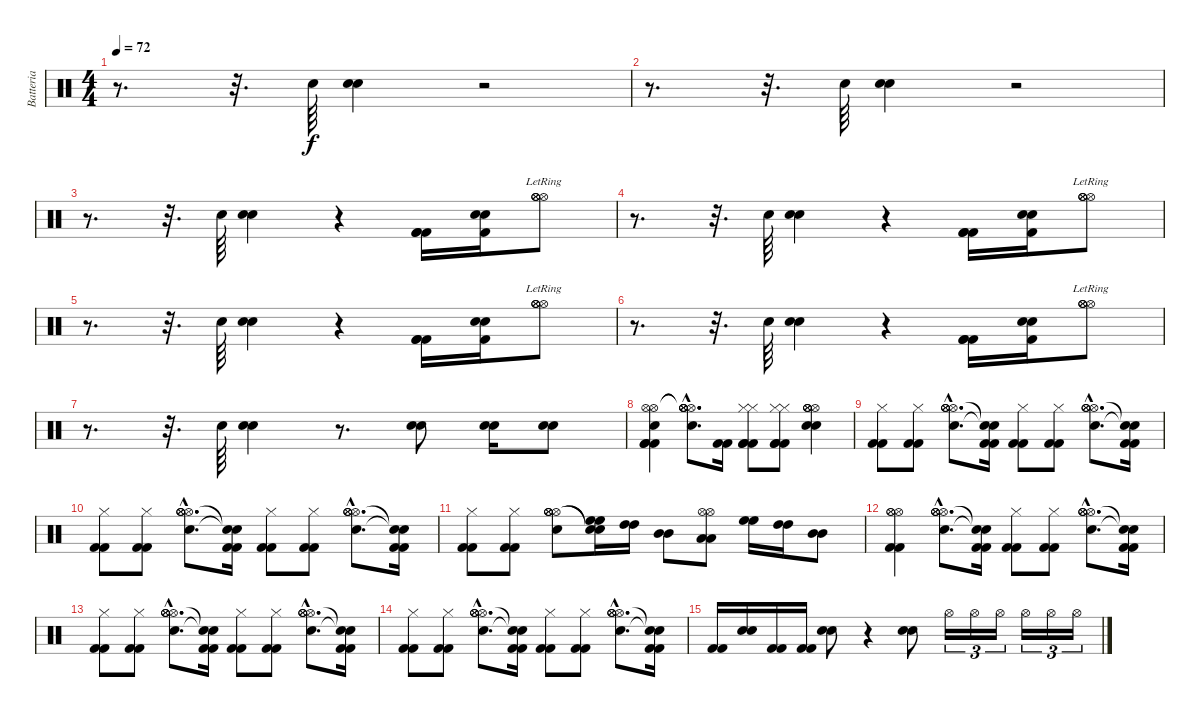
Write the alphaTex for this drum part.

\track ("Batteria" "Batteria") {instrument percussion}
\staff {score}
\articulation defaults
\ts (4 4)
\tempo 72
\clef neutral
\ks c
r.8{d dy f} r.32{d} "Snare (hit) 2".64 ("Snare (hit) 2" "Snare (hit) 2").4 r.2 |
r.8{d} r.32{d} "Snare (hit) 2".64 ("Snare (hit) 2" "Snare (hit) 2").4 r.2 |
r.8{d} r.32{d} "Snare (hit) 2".64 ("Snare (hit) 2" "Snare (hit) 2").4 r.4 ("Kick (hit) 2" "Kick (hit) 2" "Kick (hit) 2").16 ("Kick (hit) 2" "Snare (hit) 2" "Snare (hit) 2").16 ("Hi-Hat (open)" "Hi-Hat (open)" "Hi-Hat (open)"{lr} "Hi-Hat (open)").8{volume 16} |
r.8{d} r.32{d} "Snare (hit) 2".64{volume 11} ("Snare (hit) 2" "Snare (hit) 2").4 r.4 ("Kick (hit) 2" "Kick (hit) 2" "Kick (hit) 2").16 ("Kick (hit) 2" "Snare (hit) 2" "Snare (hit) 2").16 ("Hi-Hat (open)" "Hi-Hat (open)" "Hi-Hat (open)"{lr} "Hi-Hat (open)").8{volume 16} |
r.8{d} r.32{d} "Snare (hit) 2".64{volume 11} ("Snare (hit) 2" "Snare (hit) 2").4 r.4 ("Kick (hit) 2" "Kick (hit) 2" "Kick (hit) 2").16 ("Kick (hit) 2" "Snare (hit) 2" "Snare (hit) 2").16 ("Hi-Hat (open)" "Hi-Hat (open)" "Hi-Hat (open)"{lr} "Hi-Hat (open)").8{volume 16} |
r.8{d} r.32{d} "Snare (hit) 2".64{volume 11} ("Snare (hit) 2" "Snare (hit) 2").4 r.4 ("Kick (hit) 2" "Kick (hit) 2" "Kick (hit) 2").16 ("Kick (hit) 2" "Snare (hit) 2" "Snare (hit) 2").16 ("Hi-Hat (open)" "Hi-Hat (open)" "Hi-Hat (open)"{lr} "Hi-Hat (open)").8{volume 16} |
r.8{d} r.32{d} "Snare (hit) 2".64{volume 11} ("Snare (hit) 2" "Snare (hit) 2").4 r.8{d} ("Snare (hit) 2" "Snare (hit) 2").8 ("Snare (hit) 2" "Snare (hit) 2").16 ("Snare (hit) 2" "Snare (hit) 2").8 |
("Snare (hit) 2" "Hi-Hat (open)" "Hi-Hat (open)" "Kick (hit) 2" "Kick (hit) 2" "Kick (hit) 2").4 ("Snare (hit) 2"{hac} "Hi-Hat (open)"{hac t} "Hi-Hat (open)"{hac t} "Hi-Hat (open)"{hac} "Hi-Hat (open)"{hac} "Hi-Hat (open)"{hac}).8{d} ("Kick (hit) 2" "Kick (hit) 2").16 ("Kick (hit) 2" "Kick (hit) 2" "Kick (hit) 2" "Hi-Hat (closed)" "Hi-Hat (closed)").8 ("Kick (hit) 2" "Kick (hit) 2" "Kick (hit) 2" "Hi-Hat (closed)" "Hi-Hat (closed)").8 ("Hi-Hat (open)" "Hi-Hat (open)" "Hi-Hat (open)" "Hi-Hat (open)" "Snare (hit) 2" "Snare (hit) 2").4 |
("Hi-Hat (closed)" "Kick (hit) 2" "Kick (hit) 2").8 ("Hi-Hat (closed)" "Kick (hit) 2" "Kick (hit) 2").8 ("Snare (hit) 2"{hac} "Hi-Hat (open)"{hac} "Hi-Hat (open)"{hac} "Hi-Hat (open)"{hac} "Hi-Hat (open)"{hac}).8{d volume 14} ("Snare (hit)"{t} "Snare (hit)"{t} "Kick (hit) 2" "Kick (hit) 2").16{volume 11} ("Hi-Hat (closed)" "Kick (hit) 2" "Kick (hit) 2").8 ("Hi-Hat (closed)" "Kick (hit) 2" "Kick (hit) 2").8 ("Snare (hit) 2"{hac} "Hi-Hat (open)"{hac} "Hi-Hat (open)"{hac} "Hi-Hat (open)"{hac} "Hi-Hat (open)"{hac}).8{d volume 14} ("Snare (hit)"{t} "Snare (hit)"{t} "Kick (hit) 2" "Kick (hit) 2").16{volume 11} |
("Hi-Hat (closed)" "Kick (hit) 2" "Kick (hit) 2").8 ("Hi-Hat (closed)" "Kick (hit) 2" "Kick (hit) 2").8 ("Snare (hit) 2"{hac} "Hi-Hat (open)"{hac} "Hi-Hat (open)"{hac} "Hi-Hat (open)"{hac} "Hi-Hat (open)"{hac}).8{d volume 14} ("Snare (hit)"{t} "Snare (hit)"{t} "Kick (hit) 2" "Kick (hit) 2").16{volume 11} ("Hi-Hat (closed)" "Kick (hit) 2" "Kick (hit) 2").8 ("Hi-Hat (closed)" "Kick (hit) 2" "Kick (hit) 2").8 ("Snare (hit) 2"{hac} "Hi-Hat (open)"{hac} "Hi-Hat (open)"{hac} "Hi-Hat (open)"{hac} "Hi-Hat (open)"{hac}).8{d volume 14} ("Snare (hit)"{t} "Snare (hit)"{t} "Kick (hit) 2" "Kick (hit) 2").16{volume 11} |
("Hi-Hat (closed)" "Kick (hit) 2" "Kick (hit) 2").8 ("Hi-Hat (closed)" "Kick (hit) 2" "Kick (hit) 2").8 ("Snare (hit) 2" "Hi-Hat (open)" "Hi-Hat (open)" "Hi-Hat (open)" "Hi-Hat (open)").8{volume 14} ("High Floor Tom (hit)" "High Floor Tom (hit)" "Snare (hit)"{t} "Snare (hit)"{t}).16 ("High Tom (hit)" "High Tom (hit)").16 ("Mid Tom (hit)" "Mid Tom (hit)").8 ("Hi-Hat (open)" "Hi-Hat (open)" "Low Tom (hit)" "Low Tom (hit)").8 ("High Floor Tom (hit)" "High Floor Tom (hit)").16 ("High Tom (hit)" "High Tom (hit)").16 ("Mid Tom (hit)" "Mid Tom (hit)").8 |
("Hi-Hat (open)" "Hi-Hat (open)" "Hi-Hat (open)" "Kick (hit) 2" "Kick (hit) 2").4 ("Snare (hit) 2"{hac} "Hi-Hat (open)"{hac} "Hi-Hat (open)"{hac} "Hi-Hat (open)"{hac} "Hi-Hat (open)"{hac}).8{d volume 14} ("Snare (hit)"{t} "Snare (hit)"{t} "Kick (hit) 2" "Kick (hit) 2").16{volume 11} ("Hi-Hat (closed)" "Kick (hit) 2" "Kick (hit) 2").8 ("Hi-Hat (closed)" "Kick (hit) 2" "Kick (hit) 2").8 ("Snare (hit) 2"{hac} "Hi-Hat (open)"{hac} "Hi-Hat (open)"{hac} "Hi-Hat (open)"{hac} "Hi-Hat (open)"{hac}).8{d volume 14} ("Snare (hit)"{t} "Snare (hit)"{t} "Kick (hit) 2" "Kick (hit) 2").16{volume 11} |
("Hi-Hat (closed)" "Kick (hit) 2" "Kick (hit) 2").8 ("Hi-Hat (closed)" "Kick (hit) 2" "Kick (hit) 2").8 ("Snare (hit) 2"{hac} "Hi-Hat (open)"{hac} "Hi-Hat (open)"{hac} "Hi-Hat (open)"{hac} "Hi-Hat (open)"{hac}).8{d volume 14} ("Snare (hit)"{t} "Snare (hit)"{t} "Kick (hit) 2" "Kick (hit) 2").16{volume 11} ("Hi-Hat (closed)" "Kick (hit) 2" "Kick (hit) 2").8 ("Hi-Hat (closed)" "Kick (hit) 2" "Kick (hit) 2").8 ("Snare (hit) 2"{hac} "Hi-Hat (open)"{hac} "Hi-Hat (open)"{hac} "Hi-Hat (open)"{hac} "Hi-Hat (open)"{hac}).8{d volume 14} ("Snare (hit)"{t} "Snare (hit)"{t} "Kick (hit) 2" "Kick (hit) 2").16{volume 11} |
("Hi-Hat (closed)" "Kick (hit) 2" "Kick (hit) 2").8 ("Hi-Hat (closed)" "Kick (hit) 2" "Kick (hit) 2").8 ("Snare (hit) 2"{hac} "Hi-Hat (open)"{hac} "Hi-Hat (open)"{hac} "Hi-Hat (open)"{hac} "Hi-Hat (open)"{hac}).8{d volume 14} ("Snare (hit)"{t} "Snare (hit)"{t} "Kick (hit) 2" "Kick (hit) 2").16{volume 11} ("Hi-Hat (closed)" "Kick (hit) 2" "Kick (hit) 2").8 ("Hi-Hat (closed)" "Kick (hit) 2" "Kick (hit) 2").8 ("Snare (hit) 2"{hac} "Hi-Hat (open)"{hac} "Hi-Hat (open)"{hac} "Hi-Hat (open)"{hac} "Hi-Hat (open)"{hac}).8{d volume 14} ("Snare (hit)"{t} "Snare (hit)"{t} "Kick (hit) 2" "Kick (hit) 2").16{volume 11} |
("Kick (hit) 2" "Kick (hit) 2").16 ("Snare (hit) 2" "Snare (hit) 2").16 ("Kick (hit) 2" "Kick (hit) 2").16 ("Kick (hit) 2" "Kick (hit) 2").16 ("Snare (hit) 2" "Snare (hit) 2").8 r.4 ("Snare (hit) 2" "Snare (hit) 2").8 "Hi-Hat (open)".16{tu (3 2) volume 8} "Hi-Hat (open)".16{tu (3 2)} "Hi-Hat (open)".16{tu (3 2)} "Hi-Hat (open)".16{tu (3 2)} "Hi-Hat (open)".16{tu (3 2)} "Hi-Hat (open)".16{tu (3 2)}
